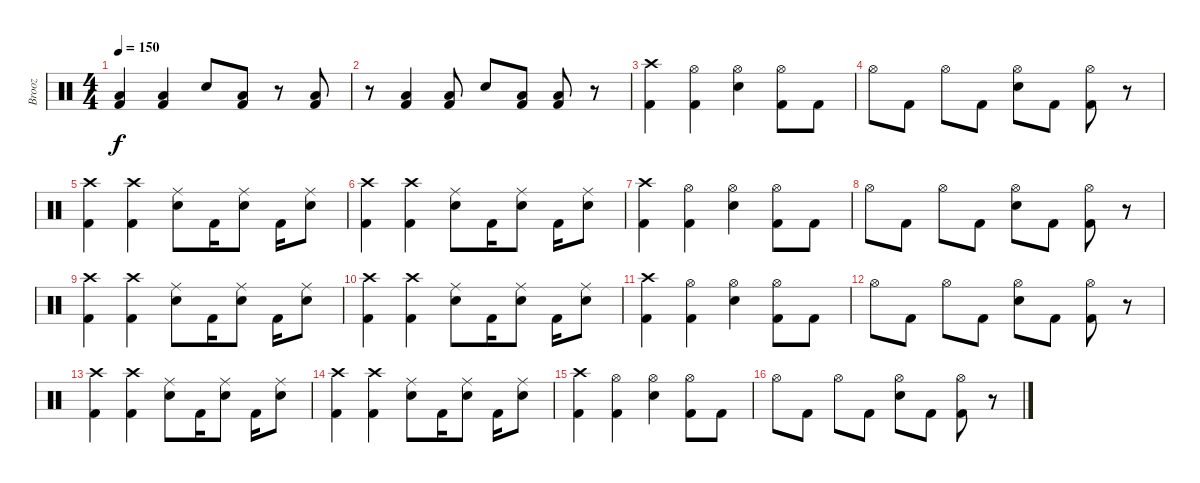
\track ("Brooz" "Brooz") {instrument percussion}
\staff {score}
\articulation defaults
\ts (4 4)
\tempo 150
\clef neutral
\ks c
("Low Floor Tom (hit)" "Kick (hit) 2").4{dy f} ("Low Floor Tom (hit)" "Kick (hit) 2").4 "Electric Snare (hit)".8 ("Low Floor Tom (hit)" "Kick (hit) 2").8 r.8 ("Low Floor Tom (hit)" "Kick (hit) 2").8 |
r.8 ("Low Floor Tom (hit)" "Kick (hit) 2").4 ("Low Floor Tom (hit)" "Kick (hit) 2").8 "Electric Snare (hit)".8 ("Low Floor Tom (hit)" "Kick (hit) 2").8 ("Low Floor Tom (hit)" "Kick (hit) 2").8 r.8 |
("Crash high (hit)" "Kick (hit) 2").4 ("Hi-Hat (open)" "Kick (hit) 2").4 ("Hi-Hat (open)" "Electric Snare (hit)").4 ("Hi-Hat (open)" "Kick (hit) 2").8 "Kick (hit) 2".8 |
"Hi-Hat (open)".8 "Kick (hit) 2".8 "Hi-Hat (open)".8 "Kick (hit) 2".8 ("Hi-Hat (open)" "Electric Snare (hit)").8 "Kick (hit) 2".8 ("Hi-Hat (open)" "Kick (hit) 2").8 r.8 |
("Crash high (hit)" "Kick (hit) 2").4 ("Crash high (hit)" "Kick (hit) 2").4 ("Ride (middle)" "Electric Snare (hit)").8 "Kick (hit) 2".16 ("Ride (middle)" "Electric Snare (hit)").8 "Kick (hit) 2".16 ("Ride (middle)" "Electric Snare (hit)").8 |
("Crash high (hit)" "Kick (hit) 2").4 ("Crash high (hit)" "Kick (hit) 2").4 ("Ride (middle)" "Electric Snare (hit)").8 "Kick (hit) 2".16 ("Ride (middle)" "Electric Snare (hit)").8 "Kick (hit) 2".16 ("Ride (middle)" "Electric Snare (hit)").8 |
("Crash high (hit)" "Kick (hit) 2").4 ("Hi-Hat (open)" "Kick (hit) 2").4 ("Hi-Hat (open)" "Electric Snare (hit)").4 ("Hi-Hat (open)" "Kick (hit) 2").8 "Kick (hit) 2".8 |
"Hi-Hat (open)".8 "Kick (hit) 2".8 "Hi-Hat (open)".8 "Kick (hit) 2".8 ("Hi-Hat (open)" "Electric Snare (hit)").8 "Kick (hit) 2".8 ("Hi-Hat (open)" "Kick (hit) 2").8 r.8 |
("Crash high (hit)" "Kick (hit) 2").4 ("Crash high (hit)" "Kick (hit) 2").4 ("Ride (middle)" "Electric Snare (hit)").8 "Kick (hit) 2".16 ("Ride (middle)" "Electric Snare (hit)").8 "Kick (hit) 2".16 ("Ride (middle)" "Electric Snare (hit)").8 |
("Crash high (hit)" "Kick (hit) 2").4 ("Crash high (hit)" "Kick (hit) 2").4 ("Ride (middle)" "Electric Snare (hit)").8 "Kick (hit) 2".16 ("Ride (middle)" "Electric Snare (hit)").8 "Kick (hit) 2".16 ("Ride (middle)" "Electric Snare (hit)").8 |
("Crash high (hit)" "Kick (hit) 2").4 ("Hi-Hat (open)" "Kick (hit) 2").4 ("Hi-Hat (open)" "Electric Snare (hit)").4 ("Hi-Hat (open)" "Kick (hit) 2").8 "Kick (hit) 2".8 |
"Hi-Hat (open)".8 "Kick (hit) 2".8 "Hi-Hat (open)".8 "Kick (hit) 2".8 ("Hi-Hat (open)" "Electric Snare (hit)").8 "Kick (hit) 2".8 ("Hi-Hat (open)" "Kick (hit) 2").8 r.8 |
("Crash high (hit)" "Kick (hit) 2").4 ("Crash high (hit)" "Kick (hit) 2").4 ("Ride (middle)" "Electric Snare (hit)").8 "Kick (hit) 2".16 ("Ride (middle)" "Electric Snare (hit)").8 "Kick (hit) 2".16 ("Ride (middle)" "Electric Snare (hit)").8 |
("Crash high (hit)" "Kick (hit) 2").4 ("Crash high (hit)" "Kick (hit) 2").4 ("Ride (middle)" "Electric Snare (hit)").8 "Kick (hit) 2".16 ("Ride (middle)" "Electric Snare (hit)").8 "Kick (hit) 2".16 ("Ride (middle)" "Electric Snare (hit)").8 |
("Crash high (hit)" "Kick (hit) 2").4 ("Hi-Hat (open)" "Kick (hit) 2").4 ("Hi-Hat (open)" "Electric Snare (hit)").4 ("Hi-Hat (open)" "Kick (hit) 2").8 "Kick (hit) 2".8 |
"Hi-Hat (open)".8 "Kick (hit) 2".8 "Hi-Hat (open)".8 "Kick (hit) 2".8 ("Hi-Hat (open)" "Electric Snare (hit)").8 "Kick (hit) 2".8 ("Hi-Hat (open)" "Kick (hit) 2").8 r.8
